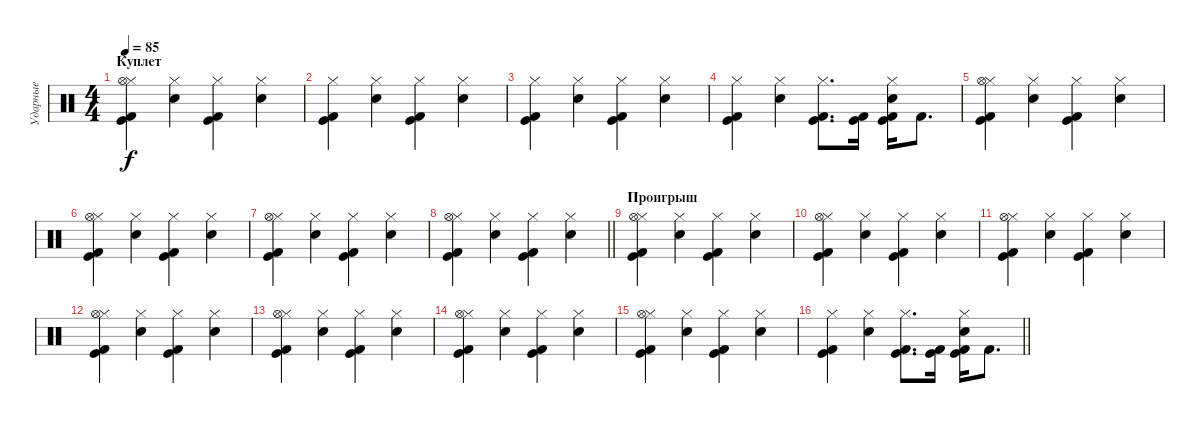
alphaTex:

\track ("Ударные" "Ударные") {instrument percussion}
\staff {score}
\articulation defaults
\ts (4 4)
\section ("" "Куплет")
\tempo 85
\clef neutral
\ks c
("Hi-Hat (closed)" "Hi-Hat (open)" "Kick (hit)" "Kick (hit) 2").4{dy f} ("Hi-Hat (closed)" "Electric Snare (hit)").4 ("Hi-Hat (closed)" "Kick (hit)" "Kick (hit) 2").4 ("Hi-Hat (closed)" "Electric Snare (hit)").4 |
("Hi-Hat (closed)" "Kick (hit)" "Kick (hit) 2").4 ("Hi-Hat (closed)" "Electric Snare (hit)").4 ("Hi-Hat (closed)" "Kick (hit)" "Kick (hit) 2").4 ("Hi-Hat (closed)" "Electric Snare (hit)").4 |
("Hi-Hat (closed)" "Kick (hit)" "Kick (hit) 2").4 ("Hi-Hat (closed)" "Electric Snare (hit)").4 ("Hi-Hat (closed)" "Kick (hit)" "Kick (hit) 2").4 ("Hi-Hat (closed)" "Electric Snare (hit)").4 |
("Hi-Hat (closed)" "Kick (hit)" "Kick (hit) 2").4 ("Hi-Hat (closed)" "Electric Snare (hit)").4 ("Hi-Hat (closed)" "Kick (hit)" "Kick (hit) 2").8{d} ("Kick (hit)" "Kick (hit) 2").16 ("Hi-Hat (closed)" "Electric Snare (hit)" "Kick (hit)" "Kick (hit) 2").16 "Kick (hit) 2".8{d} |
("Hi-Hat (closed)" "Hi-Hat (open)" "Kick (hit)" "Kick (hit) 2").4 ("Hi-Hat (closed)" "Electric Snare (hit)").4 ("Hi-Hat (closed)" "Kick (hit)" "Kick (hit) 2").4 ("Hi-Hat (closed)" "Electric Snare (hit)").4 |
("Hi-Hat (closed)" "Hi-Hat (open)" "Kick (hit)" "Kick (hit) 2").4 ("Hi-Hat (closed)" "Electric Snare (hit)").4 ("Hi-Hat (closed)" "Kick (hit)" "Kick (hit) 2").4 ("Hi-Hat (closed)" "Electric Snare (hit)").4 |
("Hi-Hat (closed)" "Hi-Hat (open)" "Kick (hit)" "Kick (hit) 2").4 ("Hi-Hat (closed)" "Electric Snare (hit)").4 ("Hi-Hat (closed)" "Kick (hit)" "Kick (hit) 2").4 ("Hi-Hat (closed)" "Electric Snare (hit)").4 |
\barLineRight lightlight
("Hi-Hat (closed)" "Hi-Hat (open)" "Kick (hit)" "Kick (hit) 2").4 ("Hi-Hat (closed)" "Electric Snare (hit)").4 ("Hi-Hat (closed)" "Kick (hit)" "Kick (hit) 2").4 ("Hi-Hat (closed)" "Electric Snare (hit)").4 |
\section ("" "Проигрыш")
("Hi-Hat (closed)" "Hi-Hat (open)" "Kick (hit)" "Kick (hit) 2").4 ("Hi-Hat (closed)" "Electric Snare (hit)").4 ("Hi-Hat (closed)" "Kick (hit)" "Kick (hit) 2").4 ("Hi-Hat (closed)" "Electric Snare (hit)").4 |
("Hi-Hat (closed)" "Hi-Hat (open)" "Kick (hit)" "Kick (hit) 2").4 ("Hi-Hat (closed)" "Electric Snare (hit)").4 ("Hi-Hat (closed)" "Kick (hit)" "Kick (hit) 2").4 ("Hi-Hat (closed)" "Electric Snare (hit)").4 |
("Hi-Hat (closed)" "Hi-Hat (open)" "Kick (hit)" "Kick (hit) 2").4 ("Hi-Hat (closed)" "Electric Snare (hit)").4 ("Hi-Hat (closed)" "Kick (hit)" "Kick (hit) 2").4 ("Hi-Hat (closed)" "Electric Snare (hit)").4 |
("Hi-Hat (closed)" "Hi-Hat (open)" "Kick (hit)" "Kick (hit) 2").4 ("Hi-Hat (closed)" "Electric Snare (hit)").4 ("Hi-Hat (closed)" "Kick (hit)" "Kick (hit) 2").4 ("Hi-Hat (closed)" "Electric Snare (hit)").4 |
("Hi-Hat (closed)" "Hi-Hat (open)" "Kick (hit)" "Kick (hit) 2").4 ("Hi-Hat (closed)" "Electric Snare (hit)").4 ("Hi-Hat (closed)" "Kick (hit)" "Kick (hit) 2").4 ("Hi-Hat (closed)" "Electric Snare (hit)").4 |
("Hi-Hat (closed)" "Hi-Hat (open)" "Kick (hit)" "Kick (hit) 2").4 ("Hi-Hat (closed)" "Electric Snare (hit)").4 ("Hi-Hat (closed)" "Kick (hit)" "Kick (hit) 2").4 ("Hi-Hat (closed)" "Electric Snare (hit)").4 |
("Hi-Hat (closed)" "Hi-Hat (open)" "Kick (hit)" "Kick (hit) 2").4 ("Hi-Hat (closed)" "Electric Snare (hit)").4 ("Hi-Hat (closed)" "Kick (hit)" "Kick (hit) 2").4 ("Hi-Hat (closed)" "Electric Snare (hit)").4 |
\barLineRight lightlight
("Hi-Hat (closed)" "Kick (hit)" "Kick (hit) 2").4 ("Hi-Hat (closed)" "Electric Snare (hit)").4 ("Hi-Hat (closed)" "Kick (hit)" "Kick (hit) 2").8{d} ("Kick (hit)" "Kick (hit) 2").16 ("Hi-Hat (closed)" "Electric Snare (hit)" "Kick (hit)" "Kick (hit) 2").16 "Kick (hit) 2".8{d}
